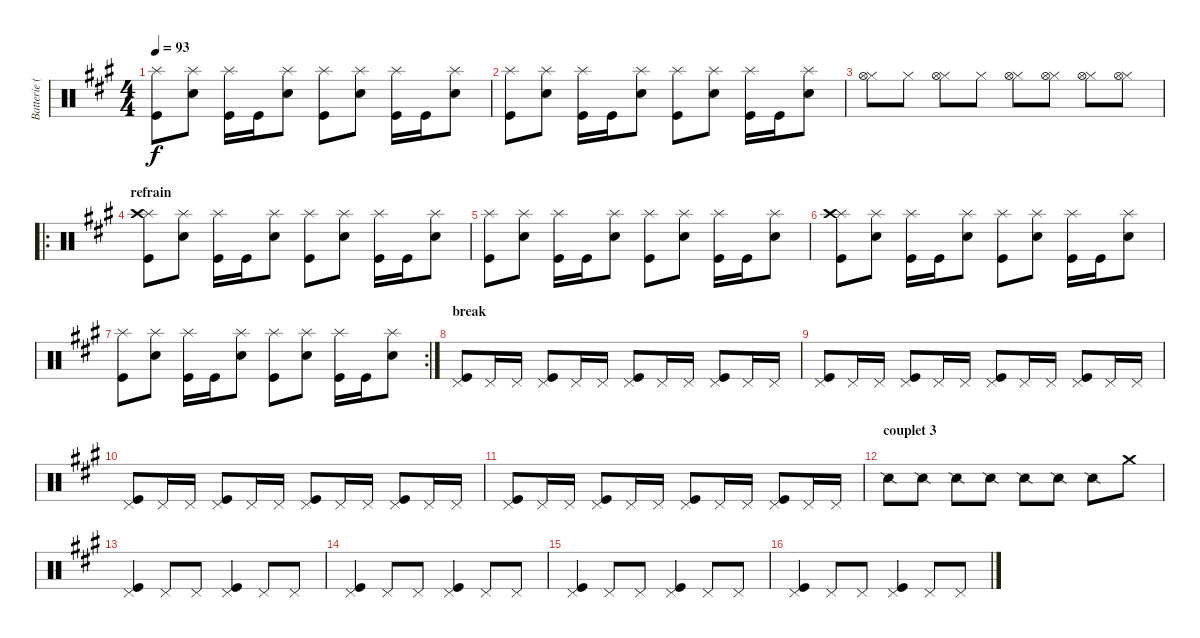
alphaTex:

\track ("Batterie (J-E)" "Batterie (") {instrument percussion}
\staff {score}
\articulation defaults
\ts (4 4)
\tempo 93
\clef neutral
\ks a
("Splash (hit)" "Kick (hit)").8{dy f} ("Splash (hit)" "Snare (hit) 2").8 ("Splash (hit)" "Kick (hit)").16 "Kick (hit)".16 ("Splash (hit)" "Snare (hit) 2").8 ("Splash (hit)" "Kick (hit)").8 ("Splash (hit)" "Snare (hit) 2").8 ("Splash (hit)" "Kick (hit)").16 "Kick (hit)".16 ("Splash (hit)" "Snare (hit) 2").8 |
("Splash (hit)" "Kick (hit)").8 ("Splash (hit)" "Snare (hit) 2").8 ("Splash (hit)" "Kick (hit)").16 "Kick (hit)".16 ("Splash (hit)" "Snare (hit) 2").8 ("Splash (hit)" "Kick (hit)").8 ("Splash (hit)" "Snare (hit) 2").8 ("Splash (hit)" "Kick (hit)").16 "Kick (hit)".16 ("Splash (hit)" "Snare (hit) 2").8 |
("Hi-Hat (closed)" "Hi-Hat (open)").8 "Hi-Hat (closed)".8 ("Hi-Hat (closed)" "Hi-Hat (open)").8 "Hi-Hat (closed)".8 ("Hi-Hat (closed)" "Hi-Hat (open)").8 ("Hi-Hat (closed)" "Hi-Hat (open)").8 ("Hi-Hat (closed)" "Hi-Hat (open)").8 ("Hi-Hat (closed)" "Hi-Hat (open)").8 |
\ro
\section ("" "refrain")
("Splash (hit)" "Crash high (hit)" "Kick (hit)").8 ("Splash (hit)" "Snare (hit) 2").8 ("Splash (hit)" "Kick (hit)").16 "Kick (hit)".16 ("Splash (hit)" "Snare (hit) 2").8 ("Splash (hit)" "Kick (hit)").8 ("Splash (hit)" "Snare (hit) 2").8 ("Splash (hit)" "Kick (hit)").16 "Kick (hit)".16 ("Splash (hit)" "Snare (hit) 2").8 |
("Splash (hit)" "Kick (hit)").8 ("Splash (hit)" "Snare (hit) 2").8 ("Splash (hit)" "Kick (hit)").16 "Kick (hit)".16 ("Splash (hit)" "Snare (hit) 2").8 ("Splash (hit)" "Kick (hit)").8 ("Splash (hit)" "Snare (hit) 2").8 ("Splash (hit)" "Kick (hit)").16 "Kick (hit)".16 ("Splash (hit)" "Snare (hit) 2").8 |
("Splash (hit)" "Crash high (hit)" "Kick (hit)").8 ("Splash (hit)" "Snare (hit) 2").8 ("Splash (hit)" "Kick (hit)").16 "Kick (hit)".16 ("Splash (hit)" "Snare (hit) 2").8 ("Splash (hit)" "Kick (hit)").8 ("Splash (hit)" "Snare (hit) 2").8 ("Splash (hit)" "Kick (hit)").16 "Kick (hit)".16 ("Splash (hit)" "Snare (hit) 2").8 |
\rc 2
("Splash (hit)" "Kick (hit)").8 ("Splash (hit)" "Snare (hit) 2").8 ("Splash (hit)" "Kick (hit)").16 "Kick (hit)".16 ("Splash (hit)" "Snare (hit) 2").8 ("Splash (hit)" "Kick (hit)").8 ("Splash (hit)" "Snare (hit) 2").8 ("Splash (hit)" "Kick (hit)").16 "Kick (hit)".16 ("Splash (hit)" "Snare (hit) 2").8 |
\section ("" "break")
("Pedal Hi-Hat (hit)" "Kick (hit)").8 "Pedal Hi-Hat (hit)".16 "Pedal Hi-Hat (hit)".16 ("Pedal Hi-Hat (hit)" "Kick (hit)").8 "Pedal Hi-Hat (hit)".16 "Pedal Hi-Hat (hit)".16 ("Pedal Hi-Hat (hit)" "Kick (hit)").8 "Pedal Hi-Hat (hit)".16 "Pedal Hi-Hat (hit)".16 ("Pedal Hi-Hat (hit)" "Kick (hit)").8 "Pedal Hi-Hat (hit)".16 "Pedal Hi-Hat (hit)".16 |
("Pedal Hi-Hat (hit)" "Kick (hit)").8 "Pedal Hi-Hat (hit)".16 "Pedal Hi-Hat (hit)".16 ("Pedal Hi-Hat (hit)" "Kick (hit)").8 "Pedal Hi-Hat (hit)".16 "Pedal Hi-Hat (hit)".16 ("Pedal Hi-Hat (hit)" "Kick (hit)").8 "Pedal Hi-Hat (hit)".16 "Pedal Hi-Hat (hit)".16 ("Pedal Hi-Hat (hit)" "Kick (hit)").8 "Pedal Hi-Hat (hit)".16 "Pedal Hi-Hat (hit)".16 |
("Pedal Hi-Hat (hit)" "Kick (hit)").8 "Pedal Hi-Hat (hit)".16 "Pedal Hi-Hat (hit)".16 ("Pedal Hi-Hat (hit)" "Kick (hit)").8 "Pedal Hi-Hat (hit)".16 "Pedal Hi-Hat (hit)".16 ("Pedal Hi-Hat (hit)" "Kick (hit)").8 "Pedal Hi-Hat (hit)".16 "Pedal Hi-Hat (hit)".16 ("Pedal Hi-Hat (hit)" "Kick (hit)").8 "Pedal Hi-Hat (hit)".16 "Pedal Hi-Hat (hit)".16 |
("Pedal Hi-Hat (hit)" "Kick (hit)").8 "Pedal Hi-Hat (hit)".16 "Pedal Hi-Hat (hit)".16 ("Pedal Hi-Hat (hit)" "Kick (hit)").8 "Pedal Hi-Hat (hit)".16 "Pedal Hi-Hat (hit)".16 ("Pedal Hi-Hat (hit)" "Kick (hit)").8 "Pedal Hi-Hat (hit)".16 "Pedal Hi-Hat (hit)".16 ("Pedal Hi-Hat (hit)" "Kick (hit)").8 "Pedal Hi-Hat (hit)".16 "Pedal Hi-Hat (hit)".16 |
\section ("" "couplet 3")
"Snare (side stick) 2".8 "Snare (side stick) 2".8 "Snare (side stick) 2".8 "Snare (side stick) 2".8 "Snare (side stick) 2".8 "Snare (side stick) 2".8 "Snare (side stick) 2".8 "Crash medium (hit)".8 |
("Pedal Hi-Hat (hit)" "Kick (hit)").4 "Pedal Hi-Hat (hit)".8 "Pedal Hi-Hat (hit)".8 ("Pedal Hi-Hat (hit)" "Kick (hit)").4 "Pedal Hi-Hat (hit)".8 "Pedal Hi-Hat (hit)".8 |
("Pedal Hi-Hat (hit)" "Kick (hit)").4 "Pedal Hi-Hat (hit)".8 "Pedal Hi-Hat (hit)".8 ("Pedal Hi-Hat (hit)" "Kick (hit)").4 "Pedal Hi-Hat (hit)".8 "Pedal Hi-Hat (hit)".8 |
("Pedal Hi-Hat (hit)" "Kick (hit)").4 "Pedal Hi-Hat (hit)".8 "Pedal Hi-Hat (hit)".8 ("Pedal Hi-Hat (hit)" "Kick (hit)").4 "Pedal Hi-Hat (hit)".8 "Pedal Hi-Hat (hit)".8 |
("Pedal Hi-Hat (hit)" "Kick (hit)").4 "Pedal Hi-Hat (hit)".8 "Pedal Hi-Hat (hit)".8 ("Pedal Hi-Hat (hit)" "Kick (hit)").4 "Pedal Hi-Hat (hit)".8 "Pedal Hi-Hat (hit)".8
